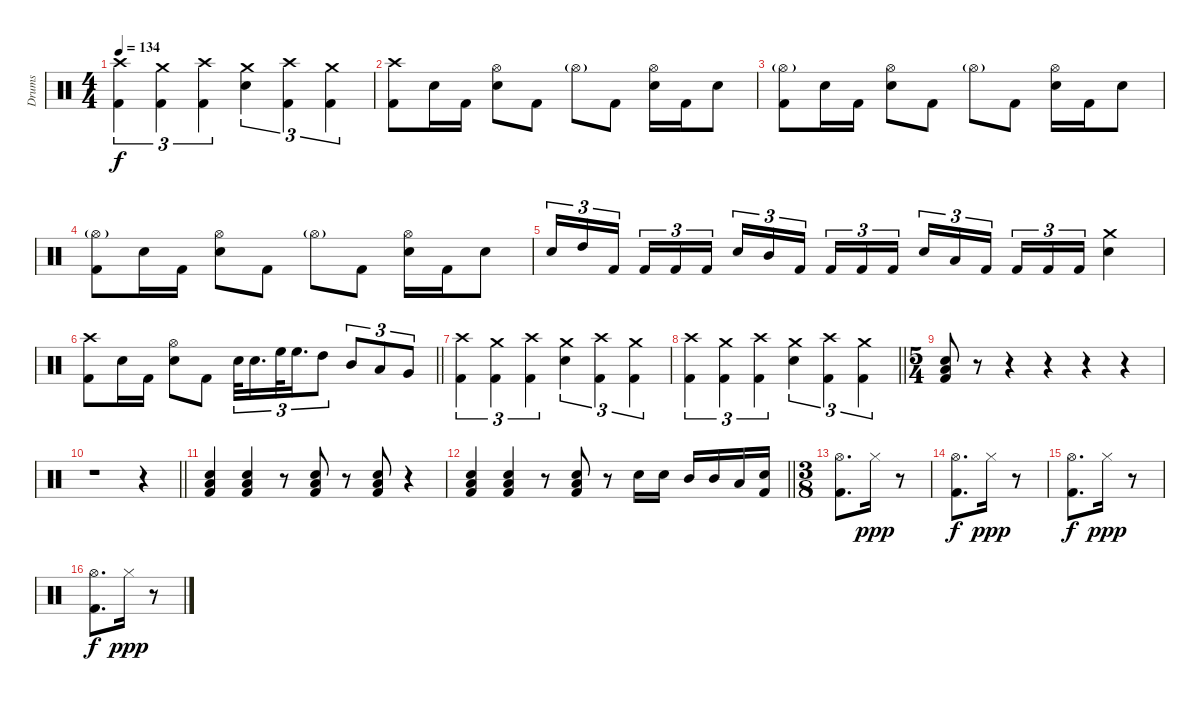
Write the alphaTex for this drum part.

\track ("Drums" "Drums") {instrument percussion}
\staff {score}
\articulation defaults
\ts (4 4)
\tempo 134
\clef neutral
\ks c
("Crash high (hit)" "Kick (hit) 2").4{tu (3 2) dy f} ("Crash medium (hit)" "Kick (hit) 2").4{tu (3 2)} ("Crash high (hit)" "Kick (hit) 2").4{tu (3 2)} ("Crash medium (hit)" "Snare (hit) 2").4{tu (3 2)} ("Crash high (hit)" "Kick (hit) 2").4{tu (3 2)} ("Crash medium (hit)" "Kick (hit) 2").4{tu (3 2)} |
("Crash high (hit)" "Kick (hit) 2").8 "Snare (hit)".16 "Kick (hit) 2".16 ("Hi-Hat (open)" "Snare (hit) 2").8 "Kick (hit) 2".8 "Hi-Hat (open)"{g}.8 "Kick (hit) 2".8 ("Hi-Hat (open)" "Snare (hit) 2").16 "Kick (hit) 2".16 "Snare (hit)".8 |
("Hi-Hat (open)"{g} "Kick (hit) 2").8 "Snare (hit)".16 "Kick (hit) 2".16 ("Hi-Hat (open)" "Snare (hit) 2").8 "Kick (hit) 2".8 "Hi-Hat (open)"{g}.8 "Kick (hit) 2".8 ("Hi-Hat (open)" "Snare (hit) 2").16 "Kick (hit) 2".16 "Snare (hit)".8 |
("Hi-Hat (open)"{g} "Kick (hit) 2").8 "Snare (hit)".16 "Kick (hit) 2".16 ("Hi-Hat (open)" "Snare (hit) 2").8 "Kick (hit) 2".8 "Hi-Hat (open)"{g}.8 "Kick (hit) 2".8 ("Hi-Hat (open)" "Snare (hit) 2").16 "Kick (hit) 2".16 "Snare (hit)".8 |
"Snare (hit) 2".16{tu (3 2)} "High Tom (hit)".16{tu (3 2)} "Kick (hit) 2".16{tu (3 2)} "Kick (hit) 2".16{tu (3 2)} "Kick (hit) 2".16{tu (3 2)} "Kick (hit) 2".16{tu (3 2)} "Snare (hit) 2".16{tu (3 2)} "Mid Tom (hit)".16{tu (3 2)} "Kick (hit) 2".16{tu (3 2)} "Kick (hit) 2".16{tu (3 2)} "Kick (hit) 2".16{tu (3 2)} "Kick (hit) 2".16{tu (3 2)} "Snare (hit) 2".16{tu (3 2)} "Low Tom (hit)".16{tu (3 2)} "Kick (hit) 2".16{tu (3 2)} "Kick (hit) 2".16{tu (3 2)} "Kick (hit) 2".16{tu (3 2)} "Kick (hit) 2".16{tu (3 2)} ("Crash medium (hit)" "Snare (hit) 2").4 |
\barLineRight lightlight
("Crash high (hit)" "Kick (hit) 2").8 "Snare (hit)".16 "Kick (hit) 2".16 ("Hi-Hat (open)" "Snare (hit) 2").8 "Kick (hit) 2".8 "Snare (hit) 2".32{tu (3 2)} "Snare (hit) 2".16{d tu (3 2)} "High Floor Tom (hit)".32{tu (3 2)} "High Floor Tom (hit)".16{d tu (3 2)} "High Tom (hit)".8{tu (3 2)} "Mid Tom (hit)".8{tu (3 2)} "Low Tom (hit)".8{tu (3 2)} "Very Low Tom (hit)".8{tu (3 2)} |
("Crash high (hit)" "Kick (hit) 2").4{tu (3 2)} ("Crash medium (hit)" "Kick (hit) 2").4{tu (3 2)} ("Crash high (hit)" "Kick (hit) 2").4{tu (3 2)} ("Crash medium (hit)" "Snare (hit) 2").4{tu (3 2)} ("Crash high (hit)" "Kick (hit) 2").4{tu (3 2)} ("Crash medium (hit)" "Kick (hit) 2").4{tu (3 2)} |
\barLineRight lightlight
("Crash high (hit)" "Kick (hit) 2").4{tu (3 2)} ("Crash medium (hit)" "Kick (hit) 2").4{tu (3 2)} ("Crash high (hit)" "Kick (hit) 2").4{tu (3 2)} ("Crash medium (hit)" "Snare (hit) 2").4{tu (3 2)} ("Crash high (hit)" "Kick (hit) 2").4{tu (3 2)} ("Crash medium (hit)" "Kick (hit) 2").4{tu (3 2)} |
\ts (5 4)
("Low Tom (hit)" "Snare (hit) 2" "Kick (hit) 2").8 r.8 r.4 r.4 r.4 r.4 |
\barLineRight lightlight
r.1 r.4 |
("Low Tom (hit)" "Snare (hit) 2" "Kick (hit) 2").4 ("Low Tom (hit)" "Snare (hit) 2" "Kick (hit) 2").4 r.8 ("Low Tom (hit)" "Snare (hit) 2" "Kick (hit) 2").8 r.8 ("Low Tom (hit)" "Snare (hit) 2" "Kick (hit) 2").8 r.4 |
\barLineRight lightlight
("Low Tom (hit)" "Snare (hit) 2" "Kick (hit) 2").4 ("Low Tom (hit)" "Snare (hit) 2" "Kick (hit) 2").4 r.8 ("Low Tom (hit)" "Snare (hit) 2" "Kick (hit) 2").8 r.8 "Snare (hit) 2".16 "Snare (hit) 2".16 "Mid Tom (hit)".16 "Mid Tom (hit)".16 "Low Tom (hit)".16 ("Snare (hit) 2" "Kick (hit) 2").16 |
\ts (3 8)
("Hi-Hat (open)" "Kick (hit) 2").8{d} "Hi-Hat (closed)".16{dy ppp} r.8 |
("Hi-Hat (open)" "Kick (hit) 2").8{d dy f} "Hi-Hat (closed)".16{dy ppp} r.8 |
("Hi-Hat (open)" "Kick (hit) 2").8{d dy f} "Hi-Hat (closed)".16{dy ppp} r.8 |
("Hi-Hat (open)" "Kick (hit) 2").8{d dy f} "Hi-Hat (closed)".16{dy ppp} r.8
